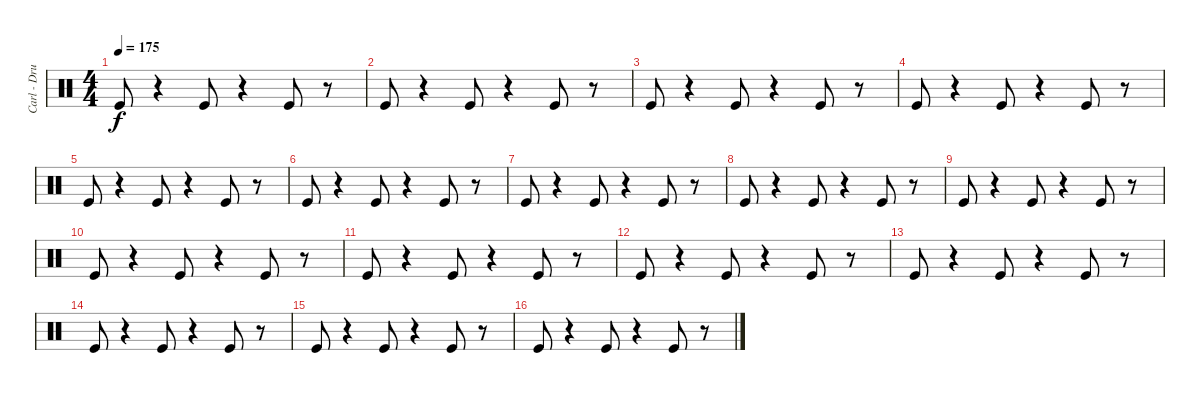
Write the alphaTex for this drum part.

\track ("Carl - Drums I" "Carl - Dru") {instrument percussion}
\staff {score}
\articulation defaults
\ts (4 4)
\tempo 175
\clef neutral
\ks c "Kick (hit)".8{dy f}
r.4 "Kick (hit)".8 r.4 "Kick (hit)".8 r.8 |
"Kick (hit)".8 r.4 "Kick (hit)".8 r.4 "Kick (hit)".8 r.8 |
"Kick (hit)".8 r.4 "Kick (hit)".8 r.4 "Kick (hit)".8 r.8 |
"Kick (hit)".8 r.4 "Kick (hit)".8 r.4 "Kick (hit)".8 r.8 |
"Kick (hit)".8 r.4 "Kick (hit)".8 r.4 "Kick (hit)".8 r.8 |
"Kick (hit)".8 r.4 "Kick (hit)".8 r.4 "Kick (hit)".8 r.8 |
"Kick (hit)".8 r.4 "Kick (hit)".8 r.4 "Kick (hit)".8 r.8 |
"Kick (hit)".8 r.4 "Kick (hit)".8 r.4 "Kick (hit)".8 r.8 |
"Kick (hit)".8 r.4 "Kick (hit)".8 r.4 "Kick (hit)".8 r.8 |
"Kick (hit)".8 r.4 "Kick (hit)".8 r.4 "Kick (hit)".8 r.8 |
"Kick (hit)".8 r.4 "Kick (hit)".8 r.4 "Kick (hit)".8 r.8 |
"Kick (hit)".8 r.4 "Kick (hit)".8 r.4 "Kick (hit)".8 r.8 |
"Kick (hit)".8 r.4 "Kick (hit)".8 r.4 "Kick (hit)".8 r.8 |
"Kick (hit)".8 r.4 "Kick (hit)".8 r.4 "Kick (hit)".8 r.8 |
"Kick (hit)".8 r.4 "Kick (hit)".8 r.4 "Kick (hit)".8 r.8 |
"Kick (hit)".8 r.4 "Kick (hit)".8 r.4 "Kick (hit)".8 r.8
